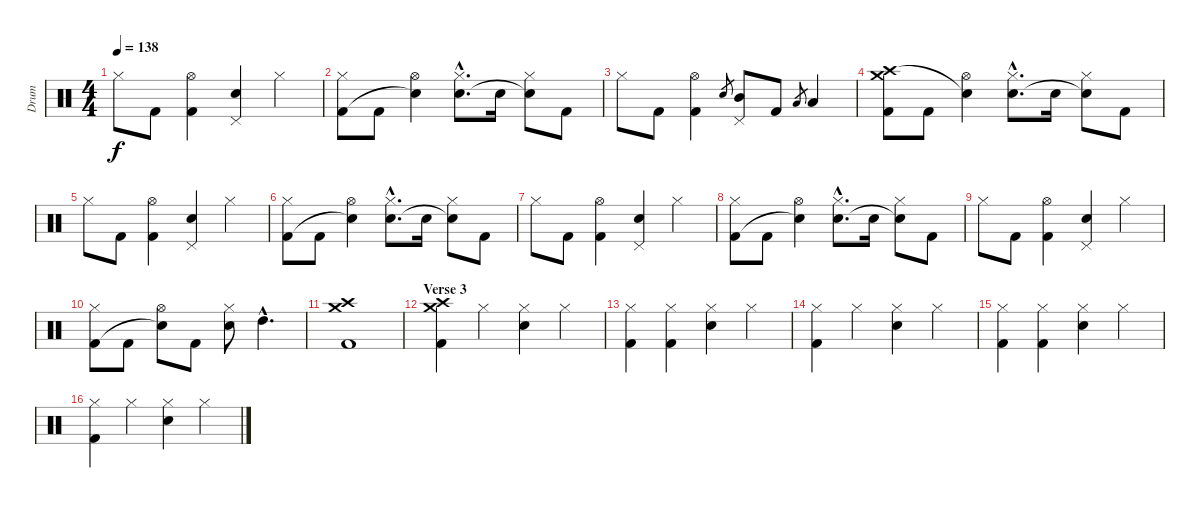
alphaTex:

\track ("Drum" "Drum") {instrument percussion}
\staff {score}
\articulation defaults
\ts (4 4)
\tempo 138
\clef neutral
\ks c "Hi-Hat (closed)".8{dy f} "Kick (hit) 2".8
("Hi-Hat (open)" "Kick (hit) 2").4 ("Pedal Hi-Hat (hit)" "Electric Snare (hit)").4 "Hi-Hat (closed)".4 |
("Hi-Hat (closed)" "Kick (hit) 2").8 "Kick (hit) 2".8 ("Hi-Hat (open)" "Snare (hit)"{t}).4 ("Hi-Hat (closed)"{hac} "Electric Snare (hit)"{hac}).8{d} "Electric Snare (hit)".16 ("Hi-Hat (closed)" "Snare (hit)"{t}).8 "Kick (hit) 2".8 |
"Hi-Hat (closed)".8 "Kick (hit) 2".8 ("Hi-Hat (open)" "Kick (hit) 2").4 "Electric Snare (hit)".8{gr} ("Pedal Hi-Hat (hit)" "Mid Tom (hit)").8 "Kick (hit) 2".8 "Low Tom (hit)".8{gr} "Low Tom (hit)".4 |
\section ("" "")
("Kick (hit) 2" "Crash high (hit)" "Crash medium (hit)").8 "Kick (hit) 2".8 ("Hi-Hat (open)" "Snare (hit)"{t}).4 ("Hi-Hat (closed)"{hac} "Electric Snare (hit)"{hac}).8{d} "Electric Snare (hit)".16 ("Hi-Hat (closed)" "Snare (hit)"{t}).8 "Kick (hit) 2".8 |
"Hi-Hat (closed)".8 "Kick (hit) 2".8 ("Hi-Hat (open)" "Kick (hit) 2").4 ("Pedal Hi-Hat (hit)" "Electric Snare (hit)").4 "Hi-Hat (closed)".4 |
("Hi-Hat (closed)" "Kick (hit) 2").8 "Kick (hit) 2".8 ("Hi-Hat (open)" "Snare (hit)"{t}).4 ("Hi-Hat (closed)"{hac} "Electric Snare (hit)"{hac}).8{d} "Electric Snare (hit)".16 ("Hi-Hat (closed)" "Snare (hit)"{t}).8 "Kick (hit) 2".8 |
"Hi-Hat (closed)".8 "Kick (hit) 2".8 ("Hi-Hat (open)" "Kick (hit) 2").4 ("Pedal Hi-Hat (hit)" "Electric Snare (hit)").4 "Hi-Hat (closed)".4 |
("Hi-Hat (closed)" "Kick (hit) 2").8 "Kick (hit) 2".8 ("Hi-Hat (open)" "Snare (hit)"{t}).4 ("Hi-Hat (closed)"{hac} "Electric Snare (hit)"{hac}).8{d} "Electric Snare (hit)".16 ("Hi-Hat (closed)" "Snare (hit)"{t}).8 "Kick (hit) 2".8 |
"Hi-Hat (closed)".8 "Kick (hit) 2".8 ("Hi-Hat (open)" "Kick (hit) 2").4 ("Pedal Hi-Hat (hit)" "Electric Snare (hit)").4 "Hi-Hat (closed)".4 |
("Hi-Hat (closed)" "Kick (hit) 2").8 "Kick (hit) 2".8 ("Hi-Hat (open)" "Snare (hit)"{t}).8 "Kick (hit) 2".8 ("Hi-Hat (closed)" "Electric Snare (hit)").8 "High Tom (hit)"{hac}.4{d} |
("Kick (hit) 2" "Crash high (hit)" "Crash medium (hit)").1 |
\section ("" "Verse 3")
("Kick (hit) 2" "Crash high (hit)" "Crash medium (hit)").4 "Hi-Hat (closed)".4 ("Hi-Hat (closed)" "Electric Snare (hit)").4 "Hi-Hat (closed)".4 |
("Hi-Hat (closed)" "Kick (hit) 2").4 ("Hi-Hat (closed)" "Kick (hit) 2").4 ("Hi-Hat (closed)" "Electric Snare (hit)").4 "Hi-Hat (closed)".4 |
("Hi-Hat (closed)" "Kick (hit) 2").4 "Hi-Hat (closed)".4 ("Hi-Hat (closed)" "Electric Snare (hit)").4 "Hi-Hat (closed)".4 |
("Hi-Hat (closed)" "Kick (hit) 2").4 ("Hi-Hat (closed)" "Kick (hit) 2").4 ("Hi-Hat (closed)" "Electric Snare (hit)").4 "Hi-Hat (closed)".4 |
("Hi-Hat (closed)" "Kick (hit) 2").4 "Hi-Hat (closed)".4 ("Hi-Hat (closed)" "Electric Snare (hit)").4 "Hi-Hat (closed)".4
